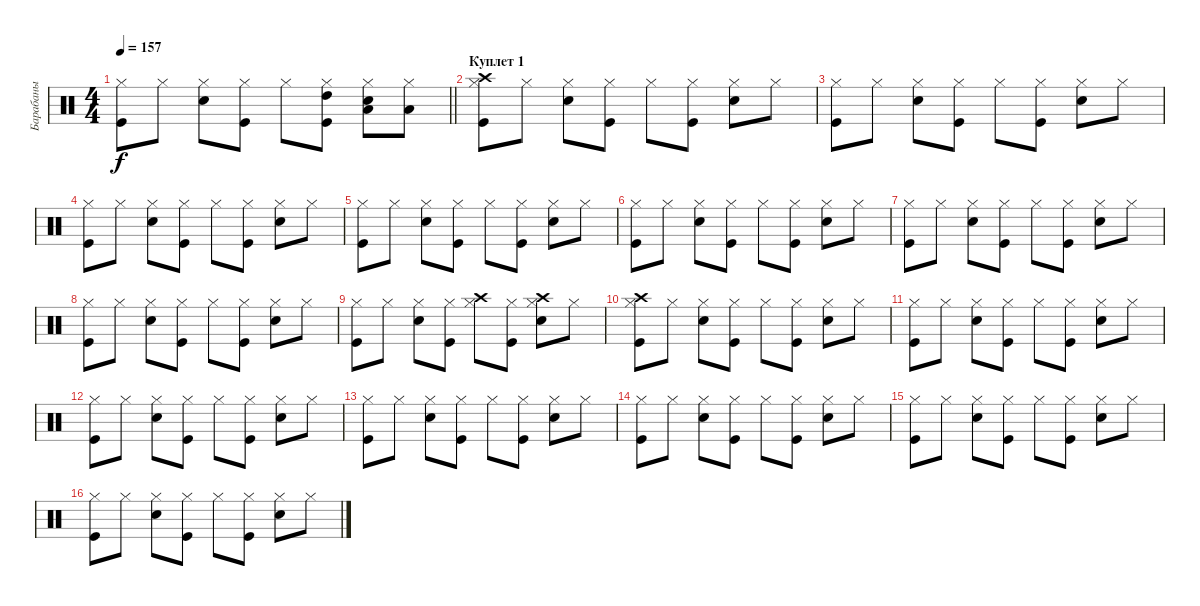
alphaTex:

\track ("Барабаны" "Барабаны") {instrument percussion}
\staff {score}
\articulation defaults
\ts (4 4)
\tempo 157
\clef neutral
\barLineRight lightlight
\ks c
("Kick (hit)" "Hi-Hat (closed)").8{dy f} "Hi-Hat (closed)".8 ("Snare (hit) 2" "Hi-Hat (closed)").8 ("Kick (hit)" "Hi-Hat (closed)").8 "Hi-Hat (closed)".8 ("Kick (hit)" "Hi-Hat (closed)" "High Tom (hit)").8 ("Snare (hit) 2" "Hi-Hat (closed)" "Low Tom (hit)").8 ("Hi-Hat (closed)" "Low Floor Tom (hit)").8 |
\section ("" "Куплет 1")
("Kick (hit)" "Hi-Hat (closed)" "Crash high (hit)").8 "Hi-Hat (closed)".8 ("Snare (hit) 2" "Hi-Hat (closed)").8 ("Kick (hit)" "Hi-Hat (closed)").8 "Hi-Hat (closed)".8 ("Kick (hit)" "Hi-Hat (closed)").8 ("Snare (hit) 2" "Hi-Hat (closed)").8 "Hi-Hat (closed)".8 |
("Kick (hit)" "Hi-Hat (closed)").8 "Hi-Hat (closed)".8 ("Snare (hit) 2" "Hi-Hat (closed)").8 ("Kick (hit)" "Hi-Hat (closed)").8 "Hi-Hat (closed)".8 ("Kick (hit)" "Hi-Hat (closed)").8 ("Snare (hit) 2" "Hi-Hat (closed)").8 "Hi-Hat (closed)".8 |
("Kick (hit)" "Hi-Hat (closed)").8 "Hi-Hat (closed)".8 ("Snare (hit) 2" "Hi-Hat (closed)").8 ("Kick (hit)" "Hi-Hat (closed)").8 "Hi-Hat (closed)".8 ("Kick (hit)" "Hi-Hat (closed)").8 ("Snare (hit) 2" "Hi-Hat (closed)").8 "Hi-Hat (closed)".8 |
("Kick (hit)" "Hi-Hat (closed)").8 "Hi-Hat (closed)".8 ("Snare (hit) 2" "Hi-Hat (closed)").8 ("Kick (hit)" "Hi-Hat (closed)").8 "Hi-Hat (closed)".8 ("Kick (hit)" "Hi-Hat (closed)").8 ("Snare (hit) 2" "Hi-Hat (closed)").8 "Hi-Hat (closed)".8 |
("Kick (hit)" "Hi-Hat (closed)").8 "Hi-Hat (closed)".8 ("Snare (hit) 2" "Hi-Hat (closed)").8 ("Kick (hit)" "Hi-Hat (closed)").8 "Hi-Hat (closed)".8 ("Kick (hit)" "Hi-Hat (closed)").8 ("Snare (hit) 2" "Hi-Hat (closed)").8 "Hi-Hat (closed)".8 |
("Kick (hit)" "Hi-Hat (closed)").8 "Hi-Hat (closed)".8 ("Snare (hit) 2" "Hi-Hat (closed)").8 ("Kick (hit)" "Hi-Hat (closed)").8 "Hi-Hat (closed)".8 ("Kick (hit)" "Hi-Hat (closed)").8 ("Snare (hit) 2" "Hi-Hat (closed)").8 "Hi-Hat (closed)".8 |
("Kick (hit)" "Hi-Hat (closed)").8 "Hi-Hat (closed)".8 ("Snare (hit) 2" "Hi-Hat (closed)").8 ("Kick (hit)" "Hi-Hat (closed)").8 "Hi-Hat (closed)".8 ("Kick (hit)" "Hi-Hat (closed)").8 ("Snare (hit) 2" "Hi-Hat (closed)").8 "Hi-Hat (closed)".8 |
("Kick (hit)" "Hi-Hat (closed)").8 "Hi-Hat (closed)".8 ("Snare (hit) 2" "Hi-Hat (closed)").8 ("Kick (hit)" "Hi-Hat (closed)").8 ("Hi-Hat (closed)" "Crash high (hit)").8 ("Kick (hit)" "Hi-Hat (closed)").8 ("Snare (hit) 2" "Hi-Hat (closed)" "Crash high (hit)").8 "Hi-Hat (closed)".8 |
("Kick (hit)" "Hi-Hat (closed)" "Crash high (hit)").8 "Hi-Hat (closed)".8 ("Snare (hit) 2" "Hi-Hat (closed)").8 ("Kick (hit)" "Hi-Hat (closed)").8 "Hi-Hat (closed)".8 ("Kick (hit)" "Hi-Hat (closed)").8 ("Snare (hit) 2" "Hi-Hat (closed)").8 "Hi-Hat (closed)".8 |
("Kick (hit)" "Hi-Hat (closed)").8 "Hi-Hat (closed)".8 ("Snare (hit) 2" "Hi-Hat (closed)").8 ("Kick (hit)" "Hi-Hat (closed)").8 "Hi-Hat (closed)".8 ("Kick (hit)" "Hi-Hat (closed)").8 ("Snare (hit) 2" "Hi-Hat (closed)").8 "Hi-Hat (closed)".8 |
("Kick (hit)" "Hi-Hat (closed)").8 "Hi-Hat (closed)".8 ("Snare (hit) 2" "Hi-Hat (closed)").8 ("Kick (hit)" "Hi-Hat (closed)").8 "Hi-Hat (closed)".8 ("Kick (hit)" "Hi-Hat (closed)").8 ("Snare (hit) 2" "Hi-Hat (closed)").8 "Hi-Hat (closed)".8 |
("Kick (hit)" "Hi-Hat (closed)").8 "Hi-Hat (closed)".8 ("Snare (hit) 2" "Hi-Hat (closed)").8 ("Kick (hit)" "Hi-Hat (closed)").8 "Hi-Hat (closed)".8 ("Kick (hit)" "Hi-Hat (closed)").8 ("Snare (hit) 2" "Hi-Hat (closed)").8 "Hi-Hat (closed)".8 |
("Kick (hit)" "Hi-Hat (closed)").8 "Hi-Hat (closed)".8 ("Snare (hit) 2" "Hi-Hat (closed)").8 ("Kick (hit)" "Hi-Hat (closed)").8 "Hi-Hat (closed)".8 ("Kick (hit)" "Hi-Hat (closed)").8 ("Snare (hit) 2" "Hi-Hat (closed)").8 "Hi-Hat (closed)".8 |
("Kick (hit)" "Hi-Hat (closed)").8 "Hi-Hat (closed)".8 ("Snare (hit) 2" "Hi-Hat (closed)").8 ("Kick (hit)" "Hi-Hat (closed)").8 "Hi-Hat (closed)".8 ("Kick (hit)" "Hi-Hat (closed)").8 ("Snare (hit) 2" "Hi-Hat (closed)").8 "Hi-Hat (closed)".8 |
("Kick (hit)" "Hi-Hat (closed)").8 "Hi-Hat (closed)".8 ("Snare (hit) 2" "Hi-Hat (closed)").8 ("Kick (hit)" "Hi-Hat (closed)").8 "Hi-Hat (closed)".8 ("Kick (hit)" "Hi-Hat (closed)").8 ("Snare (hit) 2" "Hi-Hat (closed)").8 "Hi-Hat (closed)".8
